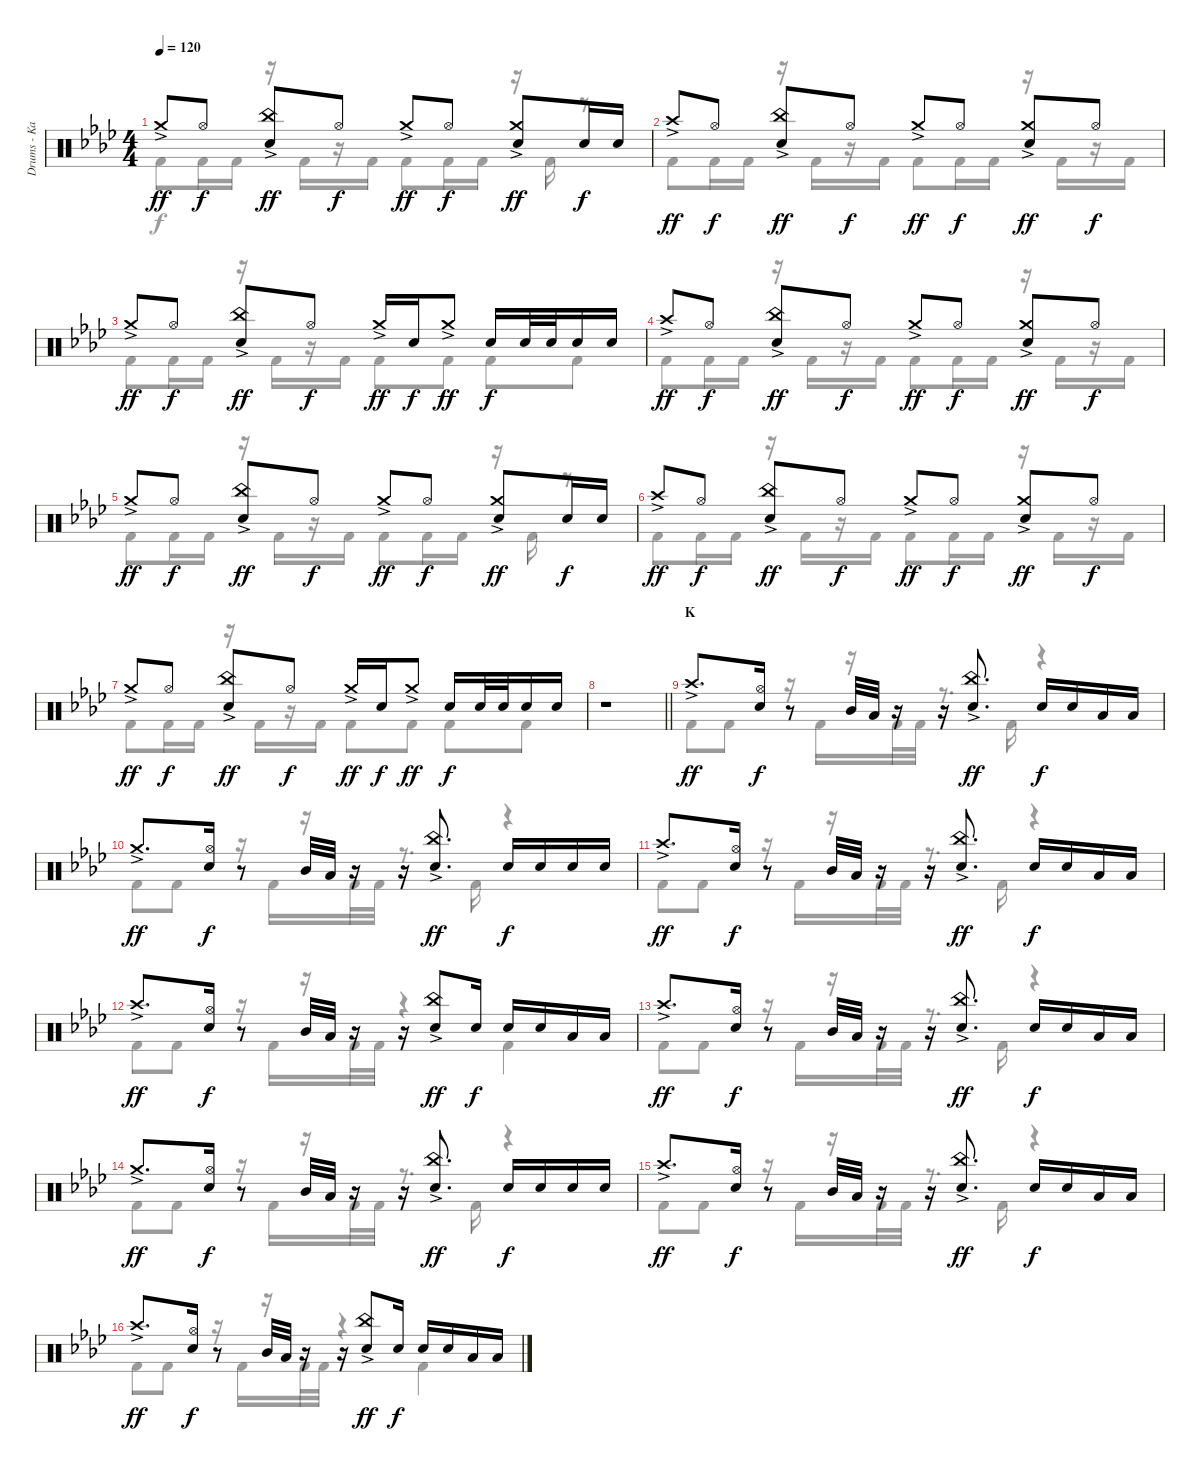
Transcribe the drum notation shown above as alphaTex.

\track ("Drums - Kai" "Drums - Ka") {instrument percussion}
\staff {score}
\articulation defaults
\voice
\ts (4 4)
\tempo 120
\clef neutral
\ks ab "Crash medium (hit)"{ac}.8{dy ff} "Hi-Hat (open)".8{dy f}
("China (hit)"{ac} "Snare (hit) 2").8{dy ff} "Hi-Hat (open)".8{dy f} "Crash medium (hit)"{ac}.8{dy ff} "Hi-Hat (open)".8{dy f} ("Crash medium (hit)"{ac} "Snare (hit) 2").8{dy ff} "Snare (hit) 2".16{dy f} "Snare (hit) 2".16 |
"Crash high (hit)"{ac}.8{dy ff} "Hi-Hat (open)".8{dy f} ("China (hit)"{ac} "Snare (hit) 2").8{dy ff} "Hi-Hat (open)".8{dy f} "Crash medium (hit)"{ac}.8{dy ff} "Hi-Hat (open)".8{dy f} ("Crash medium (hit)"{ac} "Snare (hit) 2").8{dy ff} "Hi-Hat (open)".8{dy f} |
"Crash medium (hit)"{ac}.8{dy ff} "Hi-Hat (open)".8{dy f} ("China (hit)"{ac} "Snare (hit) 2").8{dy ff} "Hi-Hat (open)".8{dy f} "Crash medium (hit)"{ac}.16{dy ff} "Snare (hit) 2".16{dy f} "Crash medium (hit)"{ac}.8{dy ff} "Snare (hit) 2".16{dy f} "Snare (hit) 2".32 "Snare (hit) 2".32 "Snare (hit) 2".16 "Snare (hit) 2".16 |
"Crash high (hit)"{ac}.8{dy ff} "Hi-Hat (open)".8{dy f} ("China (hit)"{ac} "Snare (hit) 2").8{dy ff} "Hi-Hat (open)".8{dy f} "Crash medium (hit)"{ac}.8{dy ff} "Hi-Hat (open)".8{dy f} ("Crash medium (hit)"{ac} "Snare (hit) 2").8{dy ff} "Hi-Hat (open)".8{dy f} |
"Crash medium (hit)"{ac}.8{dy ff} "Hi-Hat (open)".8{dy f} ("China (hit)"{ac} "Snare (hit) 2").8{dy ff} "Hi-Hat (open)".8{dy f} "Crash medium (hit)"{ac}.8{dy ff} "Hi-Hat (open)".8{dy f} ("Crash medium (hit)"{ac} "Snare (hit) 2").8{dy ff} "Snare (hit) 2".16{dy f} "Snare (hit) 2".16 |
"Crash high (hit)"{ac}.8{dy ff} "Hi-Hat (open)".8{dy f} ("China (hit)"{ac} "Snare (hit) 2").8{dy ff} "Hi-Hat (open)".8{dy f} "Crash medium (hit)"{ac}.8{dy ff} "Hi-Hat (open)".8{dy f} ("Crash medium (hit)"{ac} "Snare (hit) 2").8{dy ff} "Hi-Hat (open)".8{dy f} |
"Crash medium (hit)"{ac}.8{dy ff} "Hi-Hat (open)".8{dy f} ("China (hit)"{ac} "Snare (hit) 2").8{dy ff} "Hi-Hat (open)".8{dy f} "Crash medium (hit)"{ac}.16{dy ff} "Snare (hit) 2".16{dy f} "Crash medium (hit)"{ac}.8{dy ff} "Snare (hit) 2".16{dy f} "Snare (hit) 2".32 "Snare (hit) 2".32 "Snare (hit) 2".16 "Snare (hit) 2".16 |
\barLineRight lightlight
r.1 |
\section ("" "K")
"Crash high (hit)"{ac}.8{d dy ff} ("Hi-Hat (open)" "Snare (hit) 2").16{dy f} r.8 "Mid Tom (hit)".32 "Low Tom (hit)".32 r.16 r.16 ("China (hit)"{ac} "Snare (hit) 2").8{d dy ff} "Snare (hit) 2".16{dy f} "Snare (hit) 2".16 "Low Tom (hit)".16 "Low Tom (hit)".16 |
"Crash medium (hit)"{ac}.8{d dy ff} ("Hi-Hat (open)" "Snare (hit) 2").16{dy f} r.8 "Mid Tom (hit)".32 "Low Tom (hit)".32 r.16 r.16 ("China (hit)"{ac} "Snare (hit) 2").8{d dy ff} "Snare (hit) 2".16{dy f} "Snare (hit) 2".16 "Snare (hit) 2".16 "Snare (hit) 2".16 |
"Crash high (hit)"{ac}.8{d dy ff} ("Hi-Hat (open)" "Snare (hit) 2").16{dy f} r.8 "Mid Tom (hit)".32 "Low Tom (hit)".32 r.16 r.16 ("China (hit)"{ac} "Snare (hit) 2").8{d dy ff} "Snare (hit) 2".16{dy f} "Snare (hit) 2".16 "Low Tom (hit)".16 "Low Tom (hit)".16 |
"Crash high (hit)"{ac}.8{d dy ff} ("Hi-Hat (open)" "Snare (hit) 2").16{dy f} r.8 "Mid Tom (hit)".32 "Low Tom (hit)".32 r.16 r.16 ("China (hit)"{ac} "Snare (hit) 2").8{dy ff} "Snare (hit) 2".16{dy f} "Snare (hit) 2".16 "Snare (hit) 2".16 "Low Tom (hit)".16 "Low Tom (hit)".16 |
"Crash high (hit)"{ac}.8{d dy ff} ("Hi-Hat (open)" "Snare (hit) 2").16{dy f} r.8 "Mid Tom (hit)".32 "Low Tom (hit)".32 r.16 r.16 ("China (hit)"{ac} "Snare (hit) 2").8{d dy ff} "Snare (hit) 2".16{dy f} "Snare (hit) 2".16 "Low Tom (hit)".16 "Low Tom (hit)".16 |
"Crash medium (hit)"{ac}.8{d dy ff} ("Hi-Hat (open)" "Snare (hit) 2").16{dy f} r.8 "Mid Tom (hit)".32 "Low Tom (hit)".32 r.16 r.16 ("China (hit)"{ac} "Snare (hit) 2").8{d dy ff} "Snare (hit) 2".16{dy f} "Snare (hit) 2".16 "Snare (hit) 2".16 "Snare (hit) 2".16 |
"Crash high (hit)"{ac}.8{d dy ff} ("Hi-Hat (open)" "Snare (hit) 2").16{dy f} r.8 "Mid Tom (hit)".32 "Low Tom (hit)".32 r.16 r.16 ("China (hit)"{ac} "Snare (hit) 2").8{d dy ff} "Snare (hit) 2".16{dy f} "Snare (hit) 2".16 "Low Tom (hit)".16 "Low Tom (hit)".16 |
"Crash high (hit)"{ac}.8{d dy ff} ("Hi-Hat (open)" "Snare (hit) 2").16{dy f} r.8 "Mid Tom (hit)".32 "Low Tom (hit)".32 r.16 r.16 ("China (hit)"{ac} "Snare (hit) 2").8{dy ff} "Snare (hit) 2".16{dy f} "Snare (hit) 2".16 "Snare (hit) 2".16 "Low Tom (hit)".16 "Low Tom (hit)".16
\voice
\clef neutral
\ottava regular
\simile none
\ks ab "Kick (hit) 2".8{dy f} "Kick (hit) 2".16 "Kick (hit) 2".16
r.16 "Kick (hit) 2".16 r.16 "Kick (hit) 2".16 "Kick (hit) 2".8 "Kick (hit) 2".16 "Kick (hit) 2".16 r.16 "Kick (hit) 2".16 r.8 |
"Kick (hit) 2".8 "Kick (hit) 2".16 "Kick (hit) 2".16 r.16 "Kick (hit) 2".16 r.16 "Kick (hit) 2".16 "Kick (hit) 2".8 "Kick (hit) 2".16 "Kick (hit) 2".16 r.16 "Kick (hit) 2".16 r.16 "Kick (hit) 2".16 |
"Kick (hit) 2".8 "Kick (hit) 2".16 "Kick (hit) 2".16 r.16 "Kick (hit) 2".16 r.16 "Kick (hit) 2".16 "Kick (hit) 2".8 "Kick (hit) 2".8 "Kick (hit) 2".8 "Kick (hit) 2".8 |
"Kick (hit) 2".8 "Kick (hit) 2".16 "Kick (hit) 2".16 r.16 "Kick (hit) 2".16 r.16 "Kick (hit) 2".16 "Kick (hit) 2".8 "Kick (hit) 2".16 "Kick (hit) 2".16 r.16 "Kick (hit) 2".16 r.16 "Kick (hit) 2".16 |
"Kick (hit) 2".8 "Kick (hit) 2".16 "Kick (hit) 2".16 r.16 "Kick (hit) 2".16 r.16 "Kick (hit) 2".16 "Kick (hit) 2".8 "Kick (hit) 2".16 "Kick (hit) 2".16 r.16 "Kick (hit) 2".16 r.8 |
"Kick (hit) 2".8 "Kick (hit) 2".16 "Kick (hit) 2".16 r.16 "Kick (hit) 2".16 r.16 "Kick (hit) 2".16 "Kick (hit) 2".8 "Kick (hit) 2".16 "Kick (hit) 2".16 r.16 "Kick (hit) 2".16 r.16 "Kick (hit) 2".16 |
"Kick (hit) 2".8 "Kick (hit) 2".16 "Kick (hit) 2".16 r.16 "Kick (hit) 2".16 r.16 "Kick (hit) 2".16 "Kick (hit) 2".8 "Kick (hit) 2".8 "Kick (hit) 2".8 "Kick (hit) 2".8 |
\barLineRight lightlight
|
"Kick (hit) 2".8 "Kick (hit) 2".8 r.16 "Kick (hit) 2".16 r.16 "Kick (hit) 2".32 "Kick (hit) 2".32 r.8{d} "Kick (hit) 2".16 r.4 |
"Kick (hit) 2".8 "Kick (hit) 2".8 r.16 "Kick (hit) 2".16 r.16 "Kick (hit) 2".32 "Kick (hit) 2".32 r.8{d} "Kick (hit) 2".16 r.4 |
"Kick (hit) 2".8 "Kick (hit) 2".8 r.16 "Kick (hit) 2".16 r.16 "Kick (hit) 2".32 "Kick (hit) 2".32 r.8{d} "Kick (hit) 2".16 r.4 |
"Kick (hit) 2".8 "Kick (hit) 2".8 r.16 "Kick (hit) 2".16 r.16 "Kick (hit) 2".32 "Kick (hit) 2".32 r.4 "Kick (hit) 2".4 |
"Kick (hit) 2".8 "Kick (hit) 2".8 r.16 "Kick (hit) 2".16 r.16 "Kick (hit) 2".32 "Kick (hit) 2".32 r.8{d} "Kick (hit) 2".16 r.4 |
"Kick (hit) 2".8 "Kick (hit) 2".8 r.16 "Kick (hit) 2".16 r.16 "Kick (hit) 2".32 "Kick (hit) 2".32 r.8{d} "Kick (hit) 2".16 r.4 |
"Kick (hit) 2".8 "Kick (hit) 2".8 r.16 "Kick (hit) 2".16 r.16 "Kick (hit) 2".32 "Kick (hit) 2".32 r.8{d} "Kick (hit) 2".16 r.4 |
"Kick (hit) 2".8 "Kick (hit) 2".8 r.16 "Kick (hit) 2".16 r.16 "Kick (hit) 2".32 "Kick (hit) 2".32 r.4 "Kick (hit) 2".4
